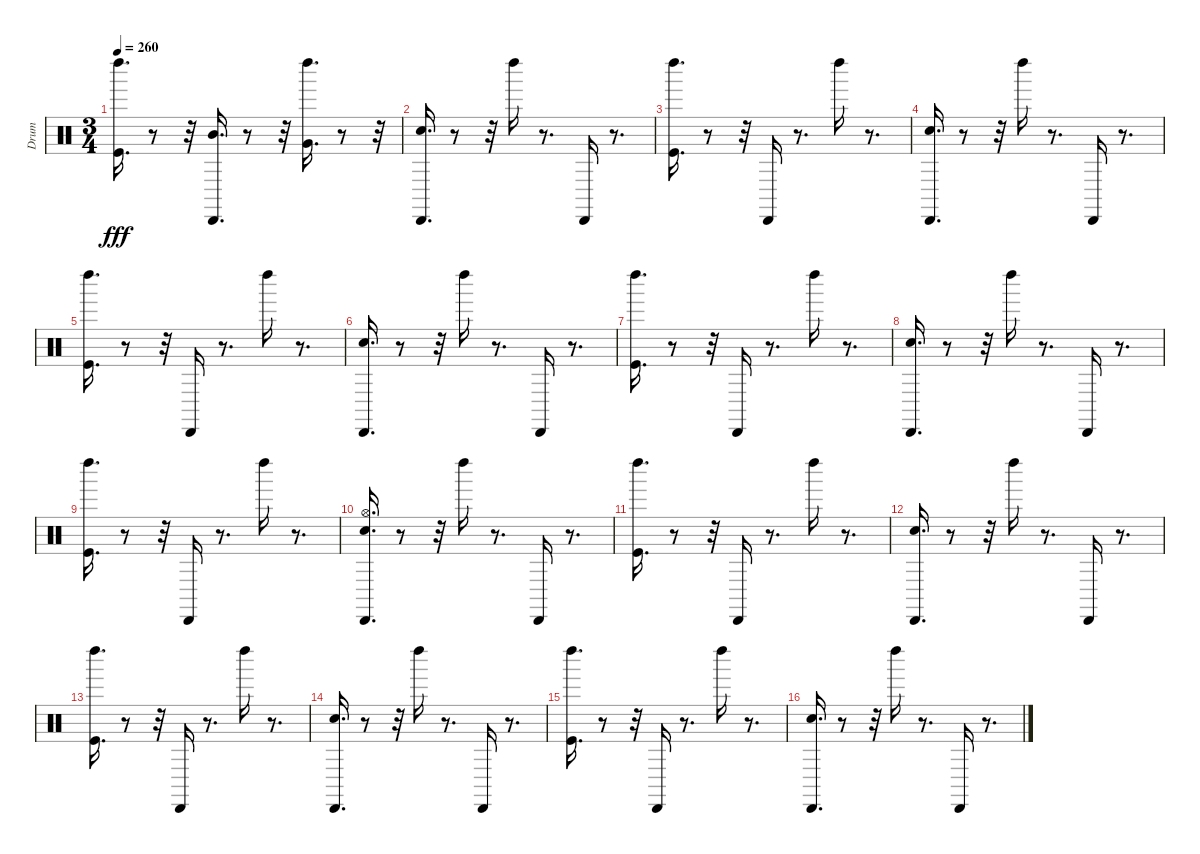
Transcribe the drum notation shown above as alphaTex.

\track ("Drum" "Drum") {instrument percussion}
\staff {score}
\articulation defaults
\ts (3 4)
\tempo 260
\clef neutral
\ks c
("Left Maraca (hit)" "Kick (hit)").16{d dy fff} r.8 r.32 ("Cabasa (hit)" "Mid Tom (hit)").16{d} r.8 r.32 ("Very Low Tom (hit)" "Left Maraca (hit)").16{d} r.8 r.32 |
("Cabasa (hit)" "Electric Snare (hit)").16{d} r.8 r.32 "Left Maraca (hit)".16 r.8{d} "Cabasa (hit)".16 r.8{d} |
("Left Maraca (hit)" "Kick (hit)").16{d} r.8 r.32 "Cabasa (hit)".16 r.8{d} "Left Maraca (hit)".16 r.8{d} |
("Cabasa (hit)" "Electric Snare (hit)").16{d} r.8 r.32 "Left Maraca (hit)".16 r.8{d} "Cabasa (hit)".16 r.8{d} |
("Left Maraca (hit)" "Kick (hit)").16{d} r.8 r.32 "Cabasa (hit)".16 r.8{d} "Left Maraca (hit)".16 r.8{d} |
("Cabasa (hit)" "Electric Snare (hit)").16{d} r.8 r.32 "Left Maraca (hit)".16 r.8{d} "Cabasa (hit)".16 r.8{d} |
("Left Maraca (hit)" "Kick (hit)").16{d} r.8 r.32 "Cabasa (hit)".16 r.8{d} "Left Maraca (hit)".16 r.8{d} |
("Cabasa (hit)" "Electric Snare (hit)").16{d} r.8 r.32 "Left Maraca (hit)".16 r.8{d} "Cabasa (hit)".16 r.8{d} |
("Left Maraca (hit)" "Kick (hit)").16{d} r.8 r.32 "Cabasa (hit)".16 r.8{d} "Left Maraca (hit)".16 r.8{d} |
("Cabasa (hit)" "Electric Snare (hit)" "Hi-Hat (open)").16{d} r.8 r.32 "Left Maraca (hit)".16 r.8{d} "Cabasa (hit)".16 r.8{d} |
("Left Maraca (hit)" "Kick (hit)").16{d} r.8 r.32 "Cabasa (hit)".16 r.8{d} "Left Maraca (hit)".16 r.8{d} |
("Cabasa (hit)" "Electric Snare (hit)").16{d} r.8 r.32 "Left Maraca (hit)".16 r.8{d} "Cabasa (hit)".16 r.8{d} |
("Left Maraca (hit)" "Kick (hit)").16{d} r.8 r.32 "Cabasa (hit)".16 r.8{d} "Left Maraca (hit)".16 r.8{d} |
("Cabasa (hit)" "Electric Snare (hit)").16{d} r.8 r.32 "Left Maraca (hit)".16 r.8{d} "Cabasa (hit)".16 r.8{d} |
("Left Maraca (hit)" "Kick (hit)").16{d} r.8 r.32 "Cabasa (hit)".16 r.8{d} "Left Maraca (hit)".16 r.8{d} |
("Cabasa (hit)" "Electric Snare (hit)").16{d} r.8 r.32 "Left Maraca (hit)".16 r.8{d} "Cabasa (hit)".16 r.8{d}
